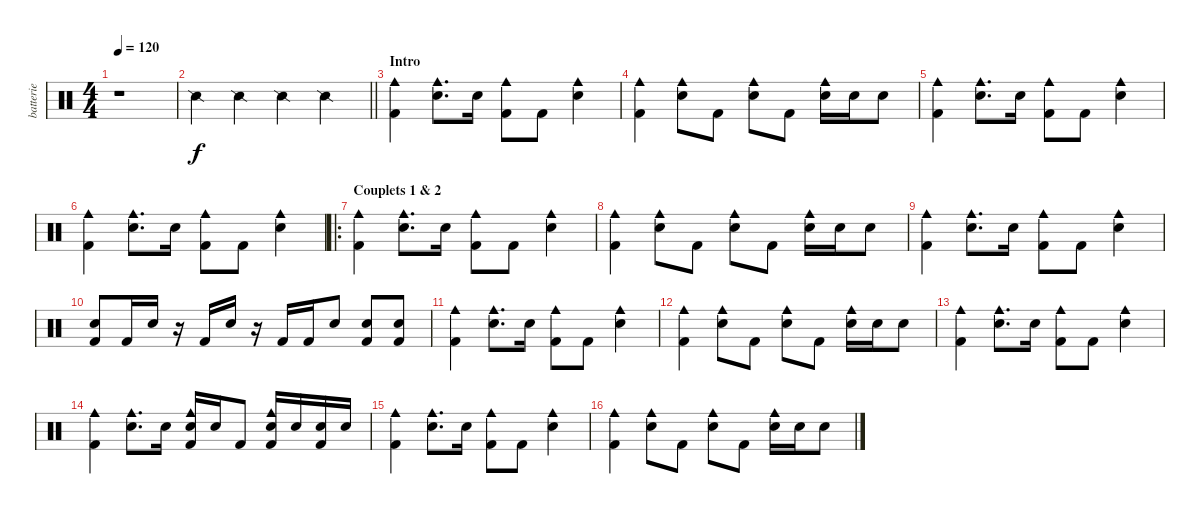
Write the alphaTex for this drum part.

\track ("batterie" "batterie") {instrument percussion}
\staff {score}
\articulation defaults
\ts (4 4)
\tempo 120
\clef neutral
\ks c
r.1{dy f} |
\barLineRight lightlight "Snare (side stick) 2".4 "Snare (side stick) 2".4 "Snare (side stick) 2".4 "Snare (side stick) 2".4
|
\section ("" "Intro")
("Kick (hit) 2" "Cowbell medium (hit)").4 ("Electric Snare (hit)" "Cowbell medium (hit)").8{d} "Electric Snare (hit)".16 ("Kick (hit) 2" "Cowbell medium (hit)").8 "Kick (hit) 2".8 ("Electric Snare (hit)" "Cowbell medium (hit)").4 |
("Kick (hit) 2" "Cowbell medium (hit)").4 ("Electric Snare (hit)" "Cowbell medium (hit)").8 "Kick (hit) 2".8 ("Electric Snare (hit)" "Cowbell medium (hit)").8 "Kick (hit) 2".8 ("Electric Snare (hit)" "Cowbell medium (hit)").16 "Electric Snare (hit)".16 "Electric Snare (hit)".8 |
("Kick (hit) 2" "Cowbell medium (hit)").4 ("Electric Snare (hit)" "Cowbell medium (hit)").8{d} "Electric Snare (hit)".16 ("Kick (hit) 2" "Cowbell medium (hit)").8 "Kick (hit) 2".8 ("Electric Snare (hit)" "Cowbell medium (hit)").4 |
("Kick (hit) 2" "Cowbell medium (hit)").4 ("Electric Snare (hit)" "Cowbell medium (hit)").8{d} "Electric Snare (hit)".16 ("Kick (hit) 2" "Cowbell medium (hit)").8 "Kick (hit) 2".8 ("Electric Snare (hit)" "Cowbell medium (hit)").4 |
\ro
\section ("" "Couplets 1 & 2")
("Kick (hit) 2" "Cowbell medium (hit)").4 ("Electric Snare (hit)" "Cowbell medium (hit)").8{d} "Electric Snare (hit)".16 ("Kick (hit) 2" "Cowbell medium (hit)").8 "Kick (hit) 2".8 ("Electric Snare (hit)" "Cowbell medium (hit)").4 |
("Kick (hit) 2" "Cowbell medium (hit)").4 ("Electric Snare (hit)" "Cowbell medium (hit)").8 "Kick (hit) 2".8 ("Electric Snare (hit)" "Cowbell medium (hit)").8 "Kick (hit) 2".8 ("Electric Snare (hit)" "Cowbell medium (hit)").16 "Electric Snare (hit)".16 "Electric Snare (hit)".8 |
("Kick (hit) 2" "Cowbell medium (hit)").4 ("Electric Snare (hit)" "Cowbell medium (hit)").8{d} "Electric Snare (hit)".16 ("Kick (hit) 2" "Cowbell medium (hit)").8 "Kick (hit) 2".8 ("Electric Snare (hit)" "Cowbell medium (hit)").4 |
("Kick (hit) 2" "Electric Snare (hit)").8 "Kick (hit) 2".16 "Electric Snare (hit)".16 r.16 "Kick (hit) 2".16 "Electric Snare (hit)".16 r.16 "Kick (hit) 2".16 "Kick (hit) 2".16 "Electric Snare (hit)".8 ("Kick (hit) 2" "Electric Snare (hit)").8 ("Kick (hit) 2" "Electric Snare (hit)").8 |
("Kick (hit) 2" "Cowbell medium (hit)").4 ("Electric Snare (hit)" "Cowbell medium (hit)").8{d} "Electric Snare (hit)".16 ("Kick (hit) 2" "Cowbell medium (hit)").8 "Kick (hit) 2".8 ("Electric Snare (hit)" "Cowbell medium (hit)").4 |
("Kick (hit) 2" "Cowbell medium (hit)").4 ("Electric Snare (hit)" "Cowbell medium (hit)").8 "Kick (hit) 2".8 ("Electric Snare (hit)" "Cowbell medium (hit)").8 "Kick (hit) 2".8 ("Electric Snare (hit)" "Cowbell medium (hit)").16 "Electric Snare (hit)".16 "Electric Snare (hit)".8 |
("Kick (hit) 2" "Cowbell medium (hit)").4 ("Electric Snare (hit)" "Cowbell medium (hit)").8{d} "Electric Snare (hit)".16 ("Kick (hit) 2" "Cowbell medium (hit)").8 "Kick (hit) 2".8 ("Electric Snare (hit)" "Cowbell medium (hit)").4 |
("Kick (hit) 2" "Cowbell medium (hit)").4 ("Electric Snare (hit)" "Cowbell medium (hit)").8{d} "Electric Snare (hit)".16 ("Kick (hit) 2" "Electric Snare (hit)" "Cowbell medium (hit)").16 "Electric Snare (hit)".16 "Kick (hit) 2".8 ("Kick (hit) 2" "Electric Snare (hit)" "Cowbell medium (hit)").16 "Electric Snare (hit)".16 ("Kick (hit) 2" "Electric Snare (hit)").16 "Electric Snare (hit)".16 |
("Kick (hit) 2" "Cowbell medium (hit)").4 ("Electric Snare (hit)" "Cowbell medium (hit)").8{d} "Electric Snare (hit)".16 ("Kick (hit) 2" "Cowbell medium (hit)").8 "Kick (hit) 2".8 ("Electric Snare (hit)" "Cowbell medium (hit)").4 |
("Kick (hit) 2" "Cowbell medium (hit)").4 ("Electric Snare (hit)" "Cowbell medium (hit)").8 "Kick (hit) 2".8 ("Electric Snare (hit)" "Cowbell medium (hit)").8 "Kick (hit) 2".8 ("Electric Snare (hit)" "Cowbell medium (hit)").16 "Electric Snare (hit)".16 "Electric Snare (hit)".8
